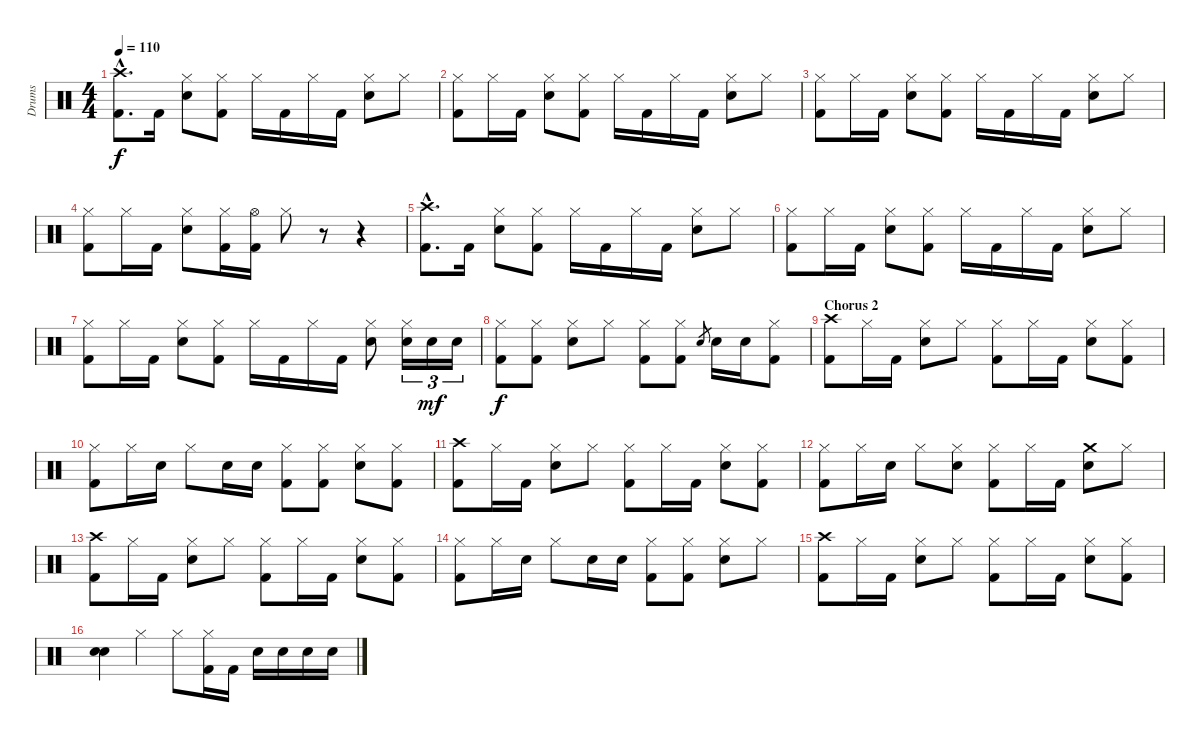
\track ("Drums" "Drums") {instrument percussion}
\staff {score}
\articulation defaults
\ts (4 4)
\tempo 110
\clef neutral
\ks c
("Crash high (hit)"{hac} "Kick (hit) 2"{hac}).8{d dy f} "Kick (hit) 2".16 ("Hi-Hat (closed)" "Electric Snare (hit)").8 ("Hi-Hat (closed)" "Kick (hit) 2").8 "Hi-Hat (closed)".16 "Kick (hit) 2".16 "Hi-Hat (closed)".16 "Kick (hit) 2".16 ("Hi-Hat (closed)" "Electric Snare (hit)").8 "Hi-Hat (closed)".8 |
("Hi-Hat (closed)" "Kick (hit) 2").8 "Hi-Hat (closed)".16 "Kick (hit) 2".16 ("Hi-Hat (closed)" "Electric Snare (hit)").8 ("Hi-Hat (closed)" "Kick (hit) 2").8 "Hi-Hat (closed)".16 "Kick (hit) 2".16 "Hi-Hat (closed)".16 "Kick (hit) 2".16 ("Hi-Hat (closed)" "Electric Snare (hit)").8 "Hi-Hat (closed)".8 |
("Hi-Hat (closed)" "Kick (hit) 2").8 "Hi-Hat (closed)".16 "Kick (hit) 2".16 ("Hi-Hat (closed)" "Electric Snare (hit)").8 ("Hi-Hat (closed)" "Kick (hit) 2").8 "Hi-Hat (closed)".16 "Kick (hit) 2".16 "Hi-Hat (closed)".16 "Kick (hit) 2".16 ("Hi-Hat (closed)" "Electric Snare (hit)").8 "Hi-Hat (closed)".8 |
("Hi-Hat (closed)" "Kick (hit) 2").8 "Hi-Hat (closed)".16 "Kick (hit) 2".16 ("Hi-Hat (closed)" "Electric Snare (hit)").8 ("Hi-Hat (closed)" "Kick (hit) 2").16 ("Hi-Hat (open)" "Kick (hit) 2").16 "Hi-Hat (closed)".8 r.8 r.4 |
("Crash high (hit)"{hac} "Kick (hit) 2"{hac}).8{d} "Kick (hit) 2".16 ("Hi-Hat (closed)" "Electric Snare (hit)").8 ("Hi-Hat (closed)" "Kick (hit) 2").8 "Hi-Hat (closed)".16 "Kick (hit) 2".16 "Hi-Hat (closed)".16 "Kick (hit) 2".16 ("Hi-Hat (closed)" "Electric Snare (hit)").8 "Hi-Hat (closed)".8 |
("Hi-Hat (closed)" "Kick (hit) 2").8 "Hi-Hat (closed)".16 "Kick (hit) 2".16 ("Hi-Hat (closed)" "Electric Snare (hit)").8 ("Hi-Hat (closed)" "Kick (hit) 2").8 "Hi-Hat (closed)".16 "Kick (hit) 2".16 "Hi-Hat (closed)".16 "Kick (hit) 2".16 ("Hi-Hat (closed)" "Electric Snare (hit)").8 "Hi-Hat (closed)".8 |
("Hi-Hat (closed)" "Kick (hit) 2").8 "Hi-Hat (closed)".16 "Kick (hit) 2".16 ("Hi-Hat (closed)" "Electric Snare (hit)").8 ("Hi-Hat (closed)" "Kick (hit) 2").8 "Hi-Hat (closed)".16 "Kick (hit) 2".16 "Hi-Hat (closed)".16 "Kick (hit) 2".16 ("Hi-Hat (closed)" "Electric Snare (hit)").8 ("Hi-Hat (closed)" "Electric Snare (hit)").16{tu (3 2)} "Electric Snare (hit)".16{tu (3 2) dy mf} "Electric Snare (hit)".16{tu (3 2)} |
("Hi-Hat (closed)" "Kick (hit) 2").8{dy f} ("Hi-Hat (closed)" "Kick (hit) 2").8 ("Hi-Hat (closed)" "Electric Snare (hit)").8 "Hi-Hat (closed)".8 ("Hi-Hat (closed)" "Kick (hit) 2").8 ("Hi-Hat (closed)" "Kick (hit) 2").8 "Electric Snare (hit)".8{gr} "Electric Snare (hit)".16 "Electric Snare (hit)".16 ("Hi-Hat (closed)" "Kick (hit) 2").8 |
\section ("" "Chorus 2")
("Crash high (hit)" "Kick (hit) 2").8 "Hi-Hat (closed)".16 "Kick (hit) 2".16 ("Hi-Hat (closed)" "Electric Snare (hit)").8 "Hi-Hat (closed)".8 ("Hi-Hat (closed)" "Kick (hit) 2").8 "Hi-Hat (closed)".16 "Kick (hit) 2".16 ("Hi-Hat (closed)" "Electric Snare (hit)").8 ("Hi-Hat (closed)" "Kick (hit) 2").8 |
("Hi-Hat (closed)" "Kick (hit) 2").8 "Hi-Hat (closed)".16 "Electric Snare (hit)".16 "Hi-Hat (closed)".8 "Electric Snare (hit)".16 "Electric Snare (hit)".16 ("Hi-Hat (closed)" "Kick (hit) 2").8 ("Hi-Hat (closed)" "Kick (hit) 2").8 ("Hi-Hat (closed)" "Electric Snare (hit)").8 ("Hi-Hat (closed)" "Kick (hit) 2").8 |
("Crash high (hit)" "Kick (hit) 2").8 "Hi-Hat (closed)".16 "Kick (hit) 2".16 ("Hi-Hat (closed)" "Electric Snare (hit)").8 "Hi-Hat (closed)".8 ("Hi-Hat (closed)" "Kick (hit) 2").8 "Hi-Hat (closed)".16 "Kick (hit) 2".16 ("Hi-Hat (closed)" "Electric Snare (hit)").8 ("Hi-Hat (closed)" "Kick (hit) 2").8 |
("Hi-Hat (closed)" "Kick (hit) 2").8 "Hi-Hat (closed)".16 "Electric Snare (hit)".16 "Hi-Hat (closed)".8 ("Hi-Hat (closed)" "Electric Snare (hit)").8 ("Hi-Hat (closed)" "Kick (hit) 2").8 "Hi-Hat (closed)".16 "Kick (hit) 2".16 ("Crash medium (hit)" "Electric Snare (hit)").8 "Hi-Hat (closed)".8 |
("Crash high (hit)" "Kick (hit) 2").8 "Hi-Hat (closed)".16 "Kick (hit) 2".16 ("Hi-Hat (closed)" "Electric Snare (hit)").8 "Hi-Hat (closed)".8 ("Hi-Hat (closed)" "Kick (hit) 2").8 "Hi-Hat (closed)".16 "Kick (hit) 2".16 ("Hi-Hat (closed)" "Electric Snare (hit)").8 ("Hi-Hat (closed)" "Kick (hit) 2").8 |
("Hi-Hat (closed)" "Kick (hit) 2").8 "Hi-Hat (closed)".16 "Electric Snare (hit)".16 "Hi-Hat (closed)".8 "Electric Snare (hit)".16 "Electric Snare (hit)".16 ("Hi-Hat (closed)" "Kick (hit) 2").8 ("Hi-Hat (closed)" "Kick (hit) 2").8 ("Hi-Hat (closed)" "Electric Snare (hit)").8 "Hi-Hat (closed)".8 |
("Crash high (hit)" "Kick (hit) 2").8 "Hi-Hat (closed)".16 "Kick (hit) 2".16 ("Hi-Hat (closed)" "Electric Snare (hit)").8 "Hi-Hat (closed)".8 ("Hi-Hat (closed)" "Kick (hit) 2").8 "Hi-Hat (closed)".16 "Kick (hit) 2".16 ("Hi-Hat (closed)" "Electric Snare (hit)").8 ("Hi-Hat (closed)" "Kick (hit) 2").8 |
("Electric Snare (hit)" "Electric Snare (hit)").4 "Hi-Hat (closed)".4 "Hi-Hat (closed)".8 ("Hi-Hat (closed)" "Kick (hit) 2").16 "Kick (hit) 2".16 "Electric Snare (hit)".16 "Electric Snare (hit)".16 "Electric Snare (hit)".16 "Electric Snare (hit)".16
